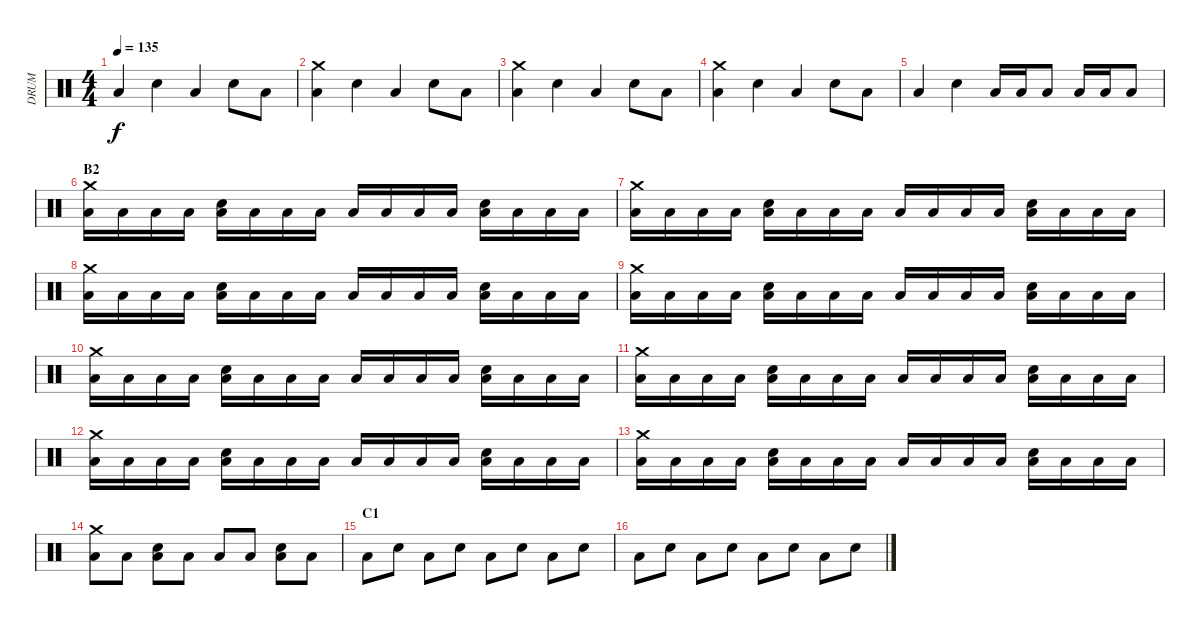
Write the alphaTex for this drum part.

\track ("DRUM" "DRUM") {instrument percussion}
\staff {score}
\articulation defaults
\ts (4 4)
\tempo 135
\clef neutral
\ks c "Low Floor Tom (hit)".4{dy f} "Electric Snare (hit)".4 "Low Floor Tom (hit)".4 "Electric Snare (hit)".8 "Low Floor Tom (hit)".8
|
("Low Floor Tom (hit)" "Crash medium (hit)").4 "Electric Snare (hit)".4 "Low Floor Tom (hit)".4 "Electric Snare (hit)".8 "Low Floor Tom (hit)".8 |
("Low Floor Tom (hit)" "Crash medium (hit)").4 "Electric Snare (hit)".4 "Low Floor Tom (hit)".4 "Electric Snare (hit)".8 "Low Floor Tom (hit)".8 |
("Low Floor Tom (hit)" "Crash medium (hit)").4 "Electric Snare (hit)".4 "Low Floor Tom (hit)".4 "Electric Snare (hit)".8 "Low Floor Tom (hit)".8 |
"Low Floor Tom (hit)".4 "Electric Snare (hit)".4 "Low Floor Tom (hit)".16 "Low Floor Tom (hit)".16 "Low Floor Tom (hit)".8 "Low Floor Tom (hit)".16 "Low Floor Tom (hit)".16 "Low Floor Tom (hit)".8 |
\section ("" "B2")
("Low Floor Tom (hit)" "Crash medium (hit)").16 "Low Floor Tom (hit)".16 "Low Floor Tom (hit)".16 "Low Floor Tom (hit)".16 ("Low Floor Tom (hit)" "Electric Snare (hit)").16 "Low Floor Tom (hit)".16 "Low Floor Tom (hit)".16 "Low Floor Tom (hit)".16 "Low Floor Tom (hit)".16 "Low Floor Tom (hit)".16 "Low Floor Tom (hit)".16 "Low Floor Tom (hit)".16 ("Low Floor Tom (hit)" "Electric Snare (hit)").16 "Low Floor Tom (hit)".16 "Low Floor Tom (hit)".16 "Low Floor Tom (hit)".16 |
("Low Floor Tom (hit)" "Crash medium (hit)").16 "Low Floor Tom (hit)".16 "Low Floor Tom (hit)".16 "Low Floor Tom (hit)".16 ("Low Floor Tom (hit)" "Electric Snare (hit)").16 "Low Floor Tom (hit)".16 "Low Floor Tom (hit)".16 "Low Floor Tom (hit)".16 "Low Floor Tom (hit)".16 "Low Floor Tom (hit)".16 "Low Floor Tom (hit)".16 "Low Floor Tom (hit)".16 ("Low Floor Tom (hit)" "Electric Snare (hit)").16 "Low Floor Tom (hit)".16 "Low Floor Tom (hit)".16 "Low Floor Tom (hit)".16 |
("Low Floor Tom (hit)" "Crash medium (hit)").16 "Low Floor Tom (hit)".16 "Low Floor Tom (hit)".16 "Low Floor Tom (hit)".16 ("Low Floor Tom (hit)" "Electric Snare (hit)").16 "Low Floor Tom (hit)".16 "Low Floor Tom (hit)".16 "Low Floor Tom (hit)".16 "Low Floor Tom (hit)".16 "Low Floor Tom (hit)".16 "Low Floor Tom (hit)".16 "Low Floor Tom (hit)".16 ("Low Floor Tom (hit)" "Electric Snare (hit)").16 "Low Floor Tom (hit)".16 "Low Floor Tom (hit)".16 "Low Floor Tom (hit)".16 |
("Low Floor Tom (hit)" "Crash medium (hit)").16 "Low Floor Tom (hit)".16 "Low Floor Tom (hit)".16 "Low Floor Tom (hit)".16 ("Low Floor Tom (hit)" "Electric Snare (hit)").16 "Low Floor Tom (hit)".16 "Low Floor Tom (hit)".16 "Low Floor Tom (hit)".16 "Low Floor Tom (hit)".16 "Low Floor Tom (hit)".16 "Low Floor Tom (hit)".16 "Low Floor Tom (hit)".16 ("Low Floor Tom (hit)" "Electric Snare (hit)").16 "Low Floor Tom (hit)".16 "Low Floor Tom (hit)".16 "Low Floor Tom (hit)".16 |
("Low Floor Tom (hit)" "Crash medium (hit)").16 "Low Floor Tom (hit)".16 "Low Floor Tom (hit)".16 "Low Floor Tom (hit)".16 ("Low Floor Tom (hit)" "Electric Snare (hit)").16 "Low Floor Tom (hit)".16 "Low Floor Tom (hit)".16 "Low Floor Tom (hit)".16 "Low Floor Tom (hit)".16 "Low Floor Tom (hit)".16 "Low Floor Tom (hit)".16 "Low Floor Tom (hit)".16 ("Low Floor Tom (hit)" "Electric Snare (hit)").16 "Low Floor Tom (hit)".16 "Low Floor Tom (hit)".16 "Low Floor Tom (hit)".16 |
("Low Floor Tom (hit)" "Crash medium (hit)").16 "Low Floor Tom (hit)".16 "Low Floor Tom (hit)".16 "Low Floor Tom (hit)".16 ("Low Floor Tom (hit)" "Electric Snare (hit)").16 "Low Floor Tom (hit)".16 "Low Floor Tom (hit)".16 "Low Floor Tom (hit)".16 "Low Floor Tom (hit)".16 "Low Floor Tom (hit)".16 "Low Floor Tom (hit)".16 "Low Floor Tom (hit)".16 ("Low Floor Tom (hit)" "Electric Snare (hit)").16 "Low Floor Tom (hit)".16 "Low Floor Tom (hit)".16 "Low Floor Tom (hit)".16 |
("Low Floor Tom (hit)" "Crash medium (hit)").16 "Low Floor Tom (hit)".16 "Low Floor Tom (hit)".16 "Low Floor Tom (hit)".16 ("Low Floor Tom (hit)" "Electric Snare (hit)").16 "Low Floor Tom (hit)".16 "Low Floor Tom (hit)".16 "Low Floor Tom (hit)".16 "Low Floor Tom (hit)".16 "Low Floor Tom (hit)".16 "Low Floor Tom (hit)".16 "Low Floor Tom (hit)".16 ("Low Floor Tom (hit)" "Electric Snare (hit)").16 "Low Floor Tom (hit)".16 "Low Floor Tom (hit)".16 "Low Floor Tom (hit)".16 |
("Low Floor Tom (hit)" "Crash medium (hit)").16 "Low Floor Tom (hit)".16 "Low Floor Tom (hit)".16 "Low Floor Tom (hit)".16 ("Low Floor Tom (hit)" "Electric Snare (hit)").16 "Low Floor Tom (hit)".16 "Low Floor Tom (hit)".16 "Low Floor Tom (hit)".16 "Low Floor Tom (hit)".16 "Low Floor Tom (hit)".16 "Low Floor Tom (hit)".16 "Low Floor Tom (hit)".16 ("Low Floor Tom (hit)" "Electric Snare (hit)").16 "Low Floor Tom (hit)".16 "Low Floor Tom (hit)".16 "Low Floor Tom (hit)".16 |
("Low Floor Tom (hit)" "Crash medium (hit)").8 "Low Floor Tom (hit)".8 ("Low Floor Tom (hit)" "Electric Snare (hit)").8 "Low Floor Tom (hit)".8 "Low Floor Tom (hit)".8 "Low Floor Tom (hit)".8 ("Low Floor Tom (hit)" "Electric Snare (hit)").8 "Low Floor Tom (hit)".8 |
\section ("" "C1")
"Low Floor Tom (hit)".8 "Electric Snare (hit)".8 "Low Floor Tom (hit)".8 "Electric Snare (hit)".8 "Low Floor Tom (hit)".8 "Electric Snare (hit)".8 "Low Floor Tom (hit)".8 "Electric Snare (hit)".8 |
"Low Floor Tom (hit)".8 "Electric Snare (hit)".8 "Low Floor Tom (hit)".8 "Electric Snare (hit)".8 "Low Floor Tom (hit)".8 "Electric Snare (hit)".8 "Low Floor Tom (hit)".8 "Electric Snare (hit)".8
